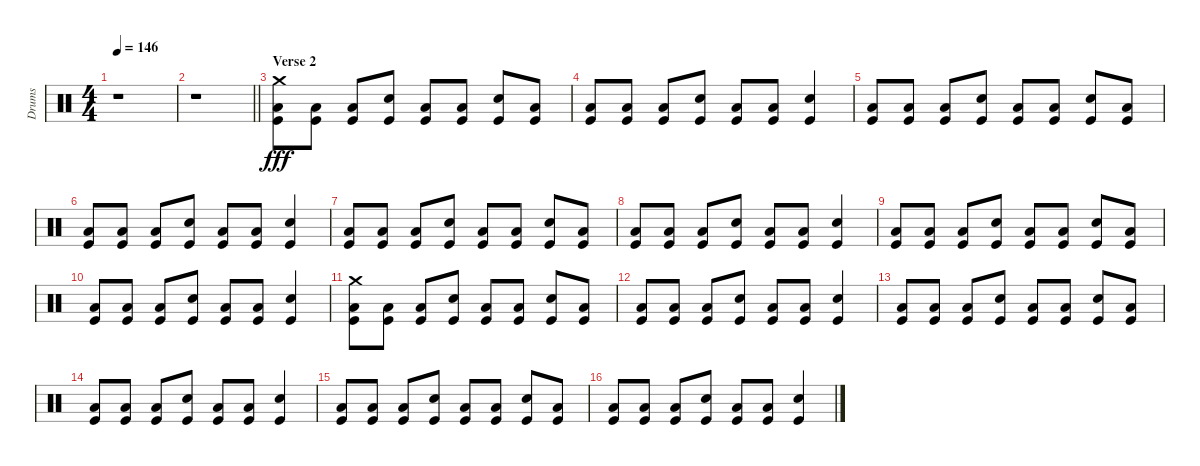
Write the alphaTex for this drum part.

\track ("Drums" "Drums") {instrument percussion}
\staff {score}
\articulation defaults
\ts (4 4)
\tempo 146
\clef neutral
\ks c
r.1{dy fff} |
\barLineRight lightlight
r.1 |
\section ("" "Verse 2")
("Crash medium (hit)" "Low Floor Tom (hit)" "Kick (hit)").8 ("Low Floor Tom (hit)" "Kick (hit)").8 ("Low Floor Tom (hit)" "Kick (hit)").8 ("Electric Snare (hit)" "Kick (hit)").8 ("Low Floor Tom (hit)" "Kick (hit)").8 ("Low Floor Tom (hit)" "Kick (hit)").8 ("Electric Snare (hit)" "Kick (hit)").8 ("Low Floor Tom (hit)" "Kick (hit)").8 |
("Low Floor Tom (hit)" "Kick (hit)").8 ("Low Floor Tom (hit)" "Kick (hit)").8 ("Low Floor Tom (hit)" "Kick (hit)").8 ("Electric Snare (hit)" "Kick (hit)").8 ("Low Floor Tom (hit)" "Kick (hit)").8 ("Low Floor Tom (hit)" "Kick (hit)").8 ("Electric Snare (hit)" "Kick (hit)").4 |
("Low Floor Tom (hit)" "Kick (hit)").8 ("Low Floor Tom (hit)" "Kick (hit)").8 ("Low Floor Tom (hit)" "Kick (hit)").8 ("Electric Snare (hit)" "Kick (hit)").8 ("Low Floor Tom (hit)" "Kick (hit)").8 ("Low Floor Tom (hit)" "Kick (hit)").8 ("Electric Snare (hit)" "Kick (hit)").8 ("Low Floor Tom (hit)" "Kick (hit)").8 |
("Low Floor Tom (hit)" "Kick (hit)").8 ("Low Floor Tom (hit)" "Kick (hit)").8 ("Low Floor Tom (hit)" "Kick (hit)").8 ("Electric Snare (hit)" "Kick (hit)").8 ("Low Floor Tom (hit)" "Kick (hit)").8 ("Low Floor Tom (hit)" "Kick (hit)").8 ("Electric Snare (hit)" "Kick (hit)").4 |
("Low Floor Tom (hit)" "Kick (hit)").8 ("Low Floor Tom (hit)" "Kick (hit)").8 ("Low Floor Tom (hit)" "Kick (hit)").8 ("Electric Snare (hit)" "Kick (hit)").8 ("Low Floor Tom (hit)" "Kick (hit)").8 ("Low Floor Tom (hit)" "Kick (hit)").8 ("Electric Snare (hit)" "Kick (hit)").8 ("Low Floor Tom (hit)" "Kick (hit)").8 |
("Low Floor Tom (hit)" "Kick (hit)").8 ("Low Floor Tom (hit)" "Kick (hit)").8 ("Low Floor Tom (hit)" "Kick (hit)").8 ("Electric Snare (hit)" "Kick (hit)").8 ("Low Floor Tom (hit)" "Kick (hit)").8 ("Low Floor Tom (hit)" "Kick (hit)").8 ("Electric Snare (hit)" "Kick (hit)").4 |
("Low Floor Tom (hit)" "Kick (hit)").8 ("Low Floor Tom (hit)" "Kick (hit)").8 ("Low Floor Tom (hit)" "Kick (hit)").8 ("Electric Snare (hit)" "Kick (hit)").8 ("Low Floor Tom (hit)" "Kick (hit)").8 ("Low Floor Tom (hit)" "Kick (hit)").8 ("Electric Snare (hit)" "Kick (hit)").8 ("Low Floor Tom (hit)" "Kick (hit)").8 |
("Low Floor Tom (hit)" "Kick (hit)").8 ("Low Floor Tom (hit)" "Kick (hit)").8 ("Low Floor Tom (hit)" "Kick (hit)").8 ("Electric Snare (hit)" "Kick (hit)").8 ("Low Floor Tom (hit)" "Kick (hit)").8 ("Low Floor Tom (hit)" "Kick (hit)").8 ("Electric Snare (hit)" "Kick (hit)").4 |
("Crash medium (hit)" "Low Floor Tom (hit)" "Kick (hit)").8 ("Low Floor Tom (hit)" "Kick (hit)").8 ("Low Floor Tom (hit)" "Kick (hit)").8 ("Electric Snare (hit)" "Kick (hit)").8 ("Low Floor Tom (hit)" "Kick (hit)").8 ("Low Floor Tom (hit)" "Kick (hit)").8 ("Electric Snare (hit)" "Kick (hit)").8 ("Low Floor Tom (hit)" "Kick (hit)").8 |
("Low Floor Tom (hit)" "Kick (hit)").8 ("Low Floor Tom (hit)" "Kick (hit)").8 ("Low Floor Tom (hit)" "Kick (hit)").8 ("Electric Snare (hit)" "Kick (hit)").8 ("Low Floor Tom (hit)" "Kick (hit)").8 ("Low Floor Tom (hit)" "Kick (hit)").8 ("Electric Snare (hit)" "Kick (hit)").4 |
("Low Floor Tom (hit)" "Kick (hit)").8 ("Low Floor Tom (hit)" "Kick (hit)").8 ("Low Floor Tom (hit)" "Kick (hit)").8 ("Electric Snare (hit)" "Kick (hit)").8 ("Low Floor Tom (hit)" "Kick (hit)").8 ("Low Floor Tom (hit)" "Kick (hit)").8 ("Electric Snare (hit)" "Kick (hit)").8 ("Low Floor Tom (hit)" "Kick (hit)").8 |
("Low Floor Tom (hit)" "Kick (hit)").8 ("Low Floor Tom (hit)" "Kick (hit)").8 ("Low Floor Tom (hit)" "Kick (hit)").8 ("Electric Snare (hit)" "Kick (hit)").8 ("Low Floor Tom (hit)" "Kick (hit)").8 ("Low Floor Tom (hit)" "Kick (hit)").8 ("Electric Snare (hit)" "Kick (hit)").4 |
("Low Floor Tom (hit)" "Kick (hit)").8 ("Low Floor Tom (hit)" "Kick (hit)").8 ("Low Floor Tom (hit)" "Kick (hit)").8 ("Electric Snare (hit)" "Kick (hit)").8 ("Low Floor Tom (hit)" "Kick (hit)").8 ("Low Floor Tom (hit)" "Kick (hit)").8 ("Electric Snare (hit)" "Kick (hit)").8 ("Low Floor Tom (hit)" "Kick (hit)").8 |
("Low Floor Tom (hit)" "Kick (hit)").8 ("Low Floor Tom (hit)" "Kick (hit)").8 ("Low Floor Tom (hit)" "Kick (hit)").8 ("Electric Snare (hit)" "Kick (hit)").8 ("Low Floor Tom (hit)" "Kick (hit)").8 ("Low Floor Tom (hit)" "Kick (hit)").8 ("Electric Snare (hit)" "Kick (hit)").4
